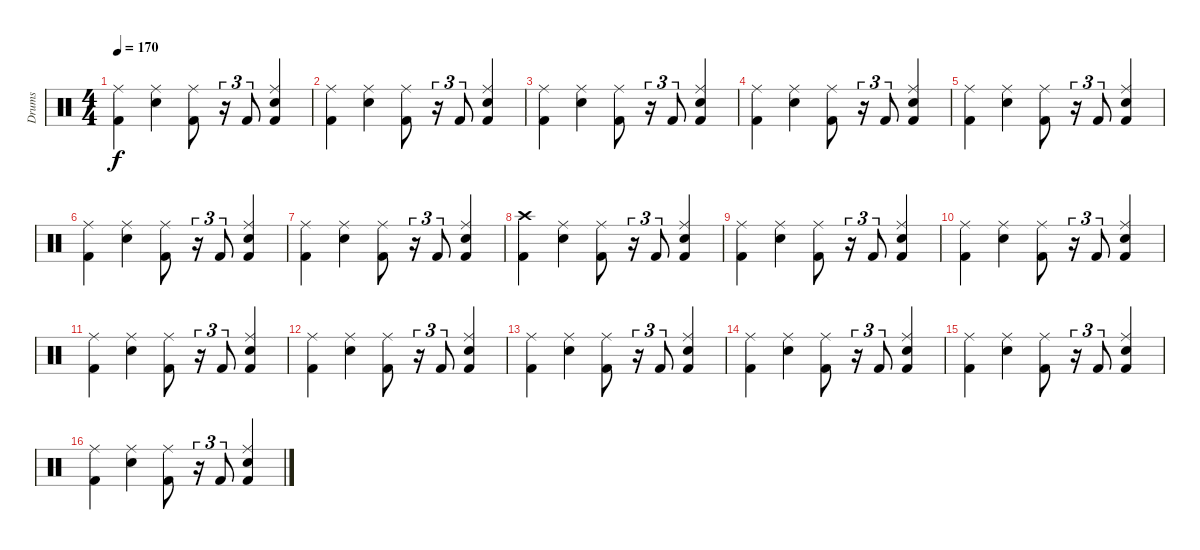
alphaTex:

\track ("Drums" "Drums") {instrument percussion}
\staff {score}
\articulation defaults
\ts (4 4)
\tempo 170
\clef neutral
\ks c
("Kick (hit) 2" "Ride (middle)").4{dy f} ("Snare (hit) 2" "Ride (middle)").4 ("Kick (hit) 2" "Ride (middle)").8 r.16{tu (3 2)} "Kick (hit) 2".8{tu (3 2)} ("Kick (hit) 2" "Snare (hit) 2" "Ride (middle)").4 |
("Kick (hit) 2" "Ride (middle)").4 ("Snare (hit) 2" "Ride (middle)").4 ("Kick (hit) 2" "Ride (middle)").8 r.16{tu (3 2)} "Kick (hit) 2".8{tu (3 2)} ("Kick (hit) 2" "Snare (hit) 2" "Ride (middle)").4 |
("Kick (hit) 2" "Ride (middle)").4 ("Snare (hit) 2" "Ride (middle)").4 ("Kick (hit) 2" "Ride (middle)").8 r.16{tu (3 2)} "Kick (hit) 2".8{tu (3 2)} ("Kick (hit) 2" "Snare (hit) 2" "Ride (middle)").4 |
("Kick (hit) 2" "Ride (middle)").4 ("Snare (hit) 2" "Ride (middle)").4 ("Kick (hit) 2" "Ride (middle)").8 r.16{tu (3 2)} "Kick (hit) 2".8{tu (3 2)} ("Kick (hit) 2" "Snare (hit) 2" "Ride (middle)").4 |
("Kick (hit) 2" "Ride (middle)").4 ("Snare (hit) 2" "Ride (middle)").4 ("Kick (hit) 2" "Ride (middle)").8 r.16{tu (3 2)} "Kick (hit) 2".8{tu (3 2)} ("Kick (hit) 2" "Snare (hit) 2" "Ride (middle)").4 |
("Kick (hit) 2" "Ride (middle)").4 ("Snare (hit) 2" "Ride (middle)").4 ("Kick (hit) 2" "Ride (middle)").8 r.16{tu (3 2)} "Kick (hit) 2".8{tu (3 2)} ("Kick (hit) 2" "Snare (hit) 2" "Ride (middle)").4 |
("Kick (hit) 2" "Ride (middle)").4 ("Snare (hit) 2" "Ride (middle)").4 ("Kick (hit) 2" "Ride (middle)").8 r.16{tu (3 2)} "Kick (hit) 2".8{tu (3 2)} ("Kick (hit) 2" "Snare (hit) 2" "Ride (middle)").4 |
("Kick (hit) 2" "Crash high (hit)").4 ("Snare (hit) 2" "Ride (middle)").4 ("Kick (hit) 2" "Ride (middle)").8 r.16{tu (3 2)} "Kick (hit) 2".8{tu (3 2)} ("Kick (hit) 2" "Snare (hit) 2" "Ride (middle)").4 |
("Kick (hit) 2" "Ride (middle)").4 ("Snare (hit) 2" "Ride (middle)").4 ("Kick (hit) 2" "Ride (middle)").8 r.16{tu (3 2)} "Kick (hit) 2".8{tu (3 2)} ("Kick (hit) 2" "Snare (hit) 2" "Ride (middle)").4 |
("Kick (hit) 2" "Ride (middle)").4 ("Snare (hit) 2" "Ride (middle)").4 ("Kick (hit) 2" "Ride (middle)").8 r.16{tu (3 2)} "Kick (hit) 2".8{tu (3 2)} ("Kick (hit) 2" "Snare (hit) 2" "Ride (middle)").4 |
("Kick (hit) 2" "Ride (middle)").4 ("Snare (hit) 2" "Ride (middle)").4 ("Kick (hit) 2" "Ride (middle)").8 r.16{tu (3 2)} "Kick (hit) 2".8{tu (3 2)} ("Kick (hit) 2" "Snare (hit) 2" "Ride (middle)").4 |
("Kick (hit) 2" "Ride (middle)").4 ("Snare (hit) 2" "Ride (middle)").4 ("Kick (hit) 2" "Ride (middle)").8 r.16{tu (3 2)} "Kick (hit) 2".8{tu (3 2)} ("Kick (hit) 2" "Snare (hit) 2" "Ride (middle)").4 |
("Kick (hit) 2" "Ride (middle)").4 ("Snare (hit) 2" "Ride (middle)").4 ("Kick (hit) 2" "Ride (middle)").8 r.16{tu (3 2)} "Kick (hit) 2".8{tu (3 2)} ("Kick (hit) 2" "Snare (hit) 2" "Ride (middle)").4 |
("Kick (hit) 2" "Ride (middle)").4 ("Snare (hit) 2" "Ride (middle)").4 ("Kick (hit) 2" "Ride (middle)").8 r.16{tu (3 2)} "Kick (hit) 2".8{tu (3 2)} ("Kick (hit) 2" "Snare (hit) 2" "Ride (middle)").4 |
("Kick (hit) 2" "Ride (middle)").4 ("Snare (hit) 2" "Ride (middle)").4 ("Kick (hit) 2" "Ride (middle)").8 r.16{tu (3 2)} "Kick (hit) 2".8{tu (3 2)} ("Kick (hit) 2" "Snare (hit) 2" "Ride (middle)").4 |
("Kick (hit) 2" "Ride (middle)").4 ("Snare (hit) 2" "Ride (middle)").4 ("Kick (hit) 2" "Ride (middle)").8 r.16{tu (3 2)} "Kick (hit) 2".8{tu (3 2)} ("Kick (hit) 2" "Snare (hit) 2" "Ride (middle)").4
